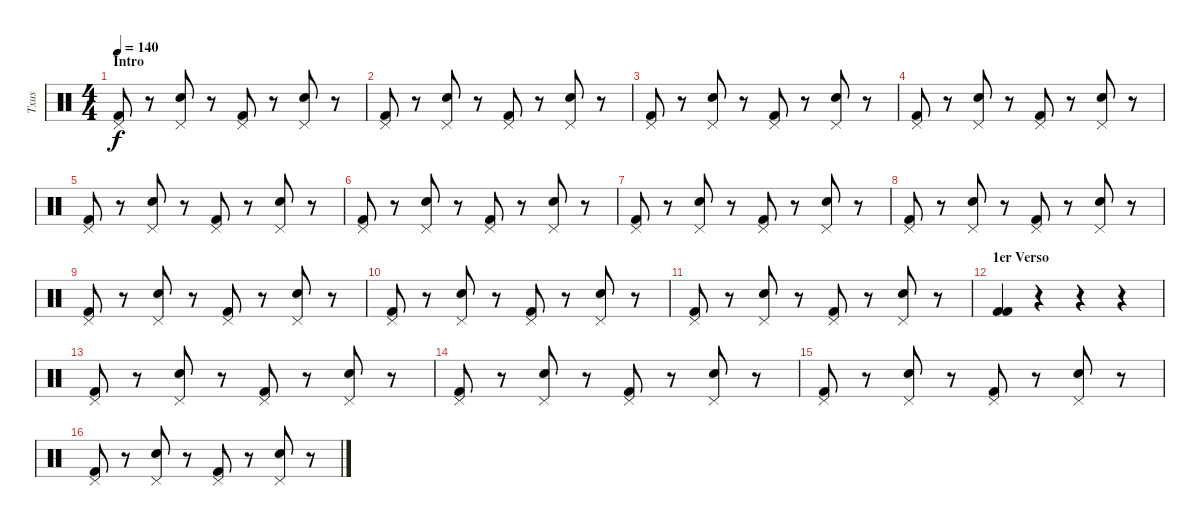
\track ("Txus" "Txus") {instrument percussion}
\staff {score}
\articulation defaults
\ts (4 4)
\section ("" "Intro")
\tempo 140
\clef neutral
\ks c
("Pedal Hi-Hat (hit)" "Kick (hit) 2").8{dy f} r.8 ("Pedal Hi-Hat (hit)" "Snare (hit) 2").8 r.8 ("Pedal Hi-Hat (hit)" "Kick (hit) 2").8 r.8 ("Pedal Hi-Hat (hit)" "Snare (hit) 2").8 r.8 |
("Pedal Hi-Hat (hit)" "Kick (hit) 2").8 r.8 ("Pedal Hi-Hat (hit)" "Snare (hit) 2").8 r.8 ("Pedal Hi-Hat (hit)" "Kick (hit) 2").8 r.8 ("Pedal Hi-Hat (hit)" "Snare (hit) 2").8 r.8 |
("Pedal Hi-Hat (hit)" "Kick (hit) 2").8 r.8 ("Pedal Hi-Hat (hit)" "Snare (hit) 2").8 r.8 ("Pedal Hi-Hat (hit)" "Kick (hit) 2").8 r.8 ("Pedal Hi-Hat (hit)" "Snare (hit) 2").8 r.8 |
("Pedal Hi-Hat (hit)" "Kick (hit) 2").8 r.8 ("Pedal Hi-Hat (hit)" "Snare (hit) 2").8 r.8 ("Pedal Hi-Hat (hit)" "Kick (hit) 2").8 r.8 ("Pedal Hi-Hat (hit)" "Snare (hit) 2").8 r.8 |
("Pedal Hi-Hat (hit)" "Kick (hit) 2").8 r.8 ("Pedal Hi-Hat (hit)" "Snare (hit) 2").8 r.8 ("Pedal Hi-Hat (hit)" "Kick (hit) 2").8 r.8 ("Pedal Hi-Hat (hit)" "Snare (hit) 2").8 r.8 |
("Pedal Hi-Hat (hit)" "Kick (hit) 2").8 r.8 ("Pedal Hi-Hat (hit)" "Snare (hit) 2").8 r.8 ("Pedal Hi-Hat (hit)" "Kick (hit) 2").8 r.8 ("Pedal Hi-Hat (hit)" "Snare (hit) 2").8 r.8 |
("Pedal Hi-Hat (hit)" "Kick (hit) 2").8 r.8 ("Pedal Hi-Hat (hit)" "Snare (hit) 2").8 r.8 ("Pedal Hi-Hat (hit)" "Kick (hit) 2").8 r.8 ("Pedal Hi-Hat (hit)" "Snare (hit) 2").8 r.8 |
("Pedal Hi-Hat (hit)" "Kick (hit) 2").8 r.8 ("Pedal Hi-Hat (hit)" "Snare (hit) 2").8 r.8 ("Pedal Hi-Hat (hit)" "Kick (hit) 2").8 r.8 ("Pedal Hi-Hat (hit)" "Snare (hit) 2").8 r.8 |
("Pedal Hi-Hat (hit)" "Kick (hit) 2").8 r.8 ("Pedal Hi-Hat (hit)" "Snare (hit) 2").8 r.8 ("Pedal Hi-Hat (hit)" "Kick (hit) 2").8 r.8 ("Pedal Hi-Hat (hit)" "Snare (hit) 2").8 r.8 |
("Pedal Hi-Hat (hit)" "Kick (hit) 2").8 r.8 ("Pedal Hi-Hat (hit)" "Snare (hit) 2").8 r.8 ("Pedal Hi-Hat (hit)" "Kick (hit) 2").8 r.8 ("Pedal Hi-Hat (hit)" "Snare (hit) 2").8 r.8 |
("Pedal Hi-Hat (hit)" "Kick (hit) 2").8 r.8 ("Pedal Hi-Hat (hit)" "Snare (hit) 2").8 r.8 ("Pedal Hi-Hat (hit)" "Kick (hit) 2").8 r.8 ("Pedal Hi-Hat (hit)" "Snare (hit) 2").8 r.8 |
\section ("" "1er Verso")
("Kick (hit) 2" "Kick (hit) 2").4 r.4 r.4 r.4 |
("Pedal Hi-Hat (hit)" "Kick (hit) 2").8 r.8 ("Pedal Hi-Hat (hit)" "Snare (hit) 2").8 r.8 ("Pedal Hi-Hat (hit)" "Kick (hit) 2").8 r.8 ("Pedal Hi-Hat (hit)" "Snare (hit) 2").8 r.8 |
("Pedal Hi-Hat (hit)" "Kick (hit) 2").8 r.8 ("Pedal Hi-Hat (hit)" "Snare (hit) 2").8 r.8 ("Pedal Hi-Hat (hit)" "Kick (hit) 2").8 r.8 ("Pedal Hi-Hat (hit)" "Snare (hit) 2").8 r.8 |
("Pedal Hi-Hat (hit)" "Kick (hit) 2").8 r.8 ("Pedal Hi-Hat (hit)" "Snare (hit) 2").8 r.8 ("Pedal Hi-Hat (hit)" "Kick (hit) 2").8 r.8 ("Pedal Hi-Hat (hit)" "Snare (hit) 2").8 r.8 |
("Pedal Hi-Hat (hit)" "Kick (hit) 2").8 r.8 ("Pedal Hi-Hat (hit)" "Snare (hit) 2").8 r.8 ("Pedal Hi-Hat (hit)" "Kick (hit) 2").8 r.8 ("Pedal Hi-Hat (hit)" "Snare (hit) 2").8 r.8
